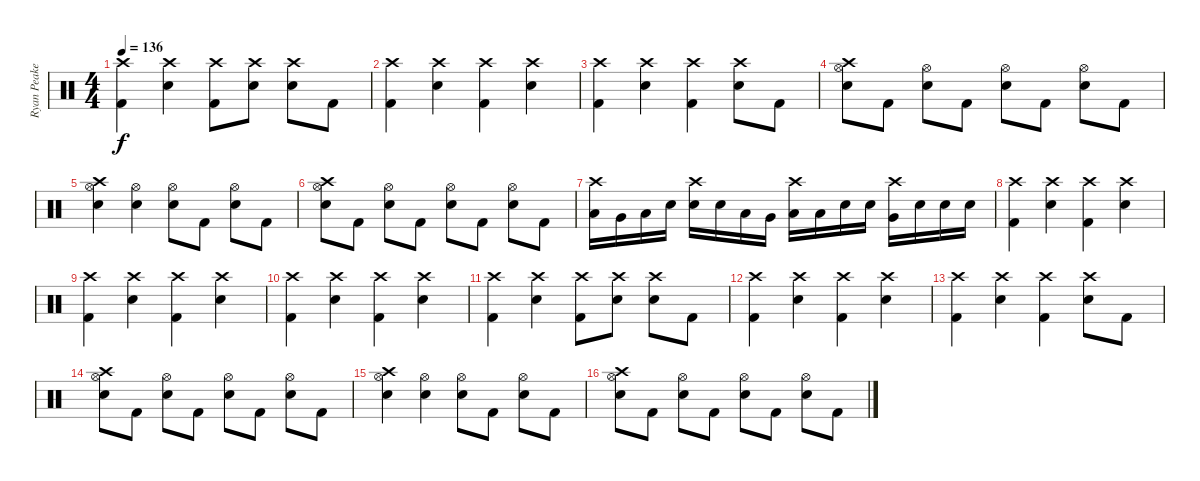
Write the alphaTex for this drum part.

\track ("Ryan Peake" "Ryan Peake") {instrument percussion}
\staff {score}
\articulation defaults
\ts (4 4)
\tempo 136
\clef neutral
\ks c
("Kick (hit) 2" "Crash high (hit)").4{dy f} ("Snare (hit) 2" "Crash high (hit)").4 ("Kick (hit) 2" "Crash high (hit)").8 ("Snare (hit) 2" "Crash high (hit)").8 ("Snare (hit) 2" "Crash high (hit)").8 "Kick (hit) 2".8 |
("Kick (hit) 2" "Crash high (hit)").4 ("Snare (hit) 2" "Crash high (hit)").4 ("Kick (hit) 2" "Crash high (hit)").4 ("Snare (hit) 2" "Crash high (hit)").4 |
("Kick (hit) 2" "Crash high (hit)").4 ("Snare (hit) 2" "Crash high (hit)").4 ("Kick (hit) 2" "Crash high (hit)").4 ("Snare (hit) 2" "Crash high (hit)").8 "Kick (hit) 2".8 |
("Snare (hit) 2" "Hi-Hat (open)" "Crash high (hit)").8 "Kick (hit) 2".8 ("Snare (hit) 2" "Hi-Hat (open)").8 "Kick (hit) 2".8 ("Snare (hit) 2" "Hi-Hat (open)").8 "Kick (hit) 2".8 ("Snare (hit) 2" "Hi-Hat (open)").8 "Kick (hit) 2".8 |
("Snare (hit) 2" "Hi-Hat (open)" "Crash high (hit)").4 ("Snare (hit) 2" "Hi-Hat (open)").4 ("Snare (hit) 2" "Hi-Hat (open)").8 "Kick (hit) 2".8 ("Snare (hit) 2" "Hi-Hat (open)").8 "Kick (hit) 2".8 |
("Snare (hit) 2" "Hi-Hat (open)" "Crash high (hit)").8 "Kick (hit) 2".8 ("Snare (hit) 2" "Hi-Hat (open)").8 "Kick (hit) 2".8 ("Snare (hit) 2" "Hi-Hat (open)").8 "Kick (hit) 2".8 ("Snare (hit) 2" "Hi-Hat (open)").8 "Kick (hit) 2".8 |
("Low Tom (hit)" "Crash high (hit)").16 "Very Low Tom (hit)".16 "Low Floor Tom (hit)".16 "Snare (hit) 2".16 ("Snare (hit) 2" "Crash high (hit)").16 "Snare (hit) 2".16 "Low Tom (hit)".16 "Very Low Tom (hit)".16 ("Low Floor Tom (hit)" "Crash high (hit)").16 "Low Floor Tom (hit)".16 "Snare (hit) 2".16 "Snare (hit) 2".16 ("Very Low Tom (hit)" "Crash high (hit)").16 "Snare (hit) 2".16 "Snare (hit) 2".16 "Snare (hit) 2".16 |
("Kick (hit) 2" "Crash high (hit)").4 ("Snare (hit) 2" "Crash high (hit)").4 ("Kick (hit) 2" "Crash high (hit)").4 ("Snare (hit) 2" "Crash high (hit)").4 |
("Kick (hit) 2" "Crash high (hit)").4 ("Snare (hit) 2" "Crash high (hit)").4 ("Kick (hit) 2" "Crash high (hit)").4 ("Snare (hit) 2" "Crash high (hit)").4 |
("Kick (hit) 2" "Crash high (hit)").4 ("Snare (hit) 2" "Crash high (hit)").4 ("Kick (hit) 2" "Crash high (hit)").4 ("Snare (hit) 2" "Crash high (hit)").4 |
("Kick (hit) 2" "Crash high (hit)").4 ("Snare (hit) 2" "Crash high (hit)").4 ("Kick (hit) 2" "Crash high (hit)").8 ("Snare (hit) 2" "Crash high (hit)").8 ("Snare (hit) 2" "Crash high (hit)").8 "Kick (hit) 2".8 |
("Kick (hit) 2" "Crash high (hit)").4 ("Snare (hit) 2" "Crash high (hit)").4 ("Kick (hit) 2" "Crash high (hit)").4 ("Snare (hit) 2" "Crash high (hit)").4 |
("Kick (hit) 2" "Crash high (hit)").4 ("Snare (hit) 2" "Crash high (hit)").4 ("Kick (hit) 2" "Crash high (hit)").4 ("Snare (hit) 2" "Crash high (hit)").8 "Kick (hit) 2".8 |
("Snare (hit) 2" "Hi-Hat (open)" "Crash high (hit)").8 "Kick (hit) 2".8 ("Snare (hit) 2" "Hi-Hat (open)").8 "Kick (hit) 2".8 ("Snare (hit) 2" "Hi-Hat (open)").8 "Kick (hit) 2".8 ("Snare (hit) 2" "Hi-Hat (open)").8 "Kick (hit) 2".8 |
("Snare (hit) 2" "Hi-Hat (open)" "Crash high (hit)").4 ("Snare (hit) 2" "Hi-Hat (open)").4 ("Snare (hit) 2" "Hi-Hat (open)").8 "Kick (hit) 2".8 ("Snare (hit) 2" "Hi-Hat (open)").8 "Kick (hit) 2".8 |
("Snare (hit) 2" "Hi-Hat (open)" "Crash high (hit)").8 "Kick (hit) 2".8 ("Snare (hit) 2" "Hi-Hat (open)").8 "Kick (hit) 2".8 ("Snare (hit) 2" "Hi-Hat (open)").8 "Kick (hit) 2".8 ("Snare (hit) 2" "Hi-Hat (open)").8 "Kick (hit) 2".8
